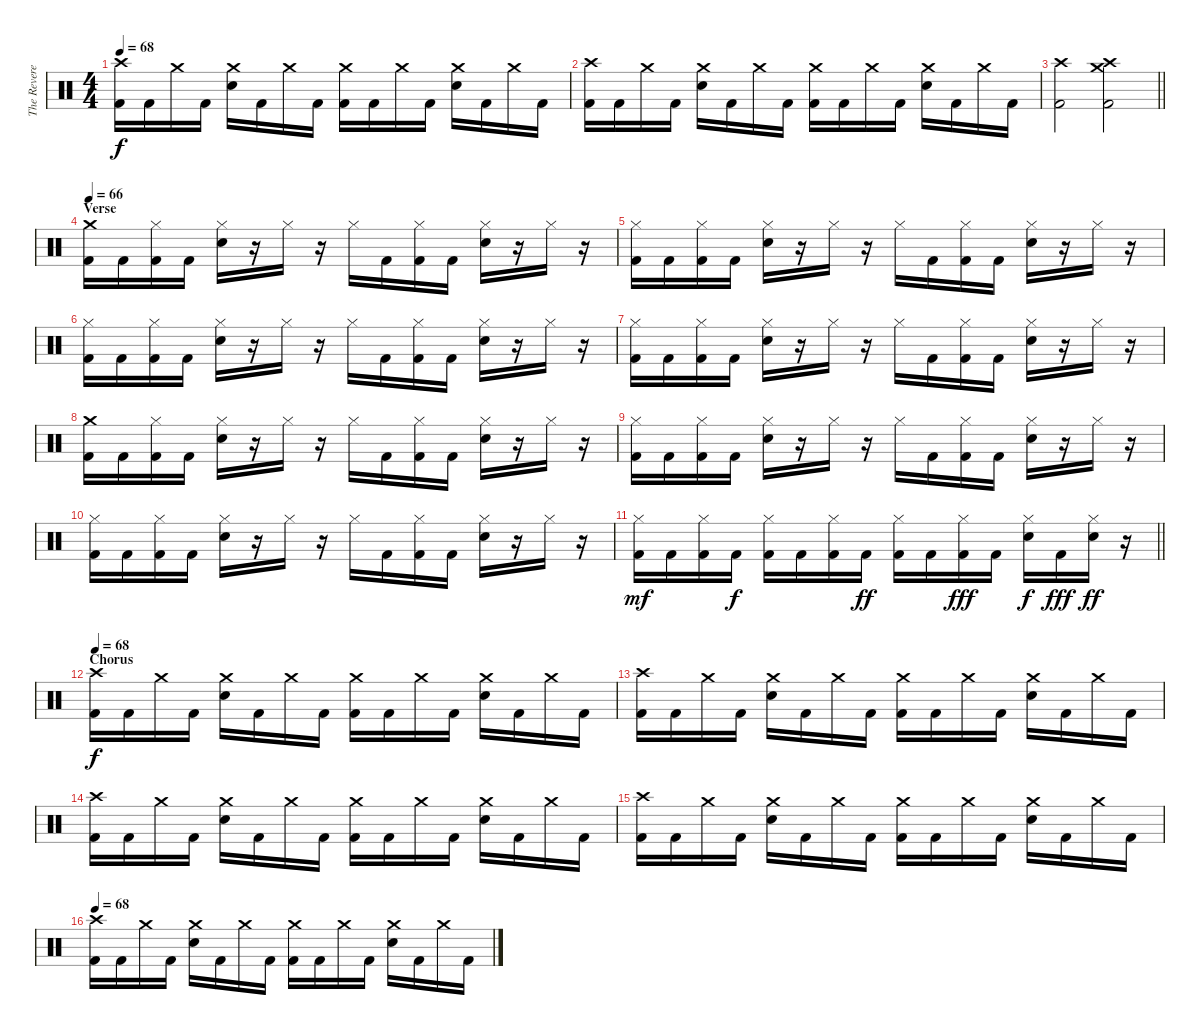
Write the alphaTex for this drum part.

\track ("The Reverend" "The Revere") {instrument percussion}
\staff {score}
\articulation defaults
\ts (4 4)
\tempo 68
\clef neutral
\ks c
("Crash high (hit)" "Kick (hit) 2").16{dy f} "Kick (hit) 2".16 "Crash medium (hit)".16 "Kick (hit) 2".16 ("Crash medium (hit)" "Electric Snare (hit)").16 "Kick (hit) 2".16 "Crash medium (hit)".16 "Kick (hit) 2".16 ("Crash medium (hit)" "Kick (hit) 2").16 "Kick (hit) 2".16 "Crash medium (hit)".16 "Kick (hit) 2".16 ("Crash medium (hit)" "Electric Snare (hit)").16 "Kick (hit) 2".16 "Crash medium (hit)".16 "Kick (hit) 2".16 |
("Crash high (hit)" "Kick (hit) 2").16 "Kick (hit) 2".16 "Crash medium (hit)".16 "Kick (hit) 2".16 ("Crash medium (hit)" "Electric Snare (hit)").16 "Kick (hit) 2".16 "Crash medium (hit)".16 "Kick (hit) 2".16 ("Crash medium (hit)" "Kick (hit) 2").16 "Kick (hit) 2".16 "Crash medium (hit)".16 "Kick (hit) 2".16 ("Crash medium (hit)" "Electric Snare (hit)").16 "Kick (hit) 2".16 "Crash medium (hit)".16 "Kick (hit) 2".16 |
\barLineRight lightlight
("Crash high (hit)" "Kick (hit) 2").2 ("Crash high (hit)" "Crash medium (hit)" "Kick (hit) 2").2 |
\section ("" "Verse")
\tempo 66
("Crash medium (hit)" "Kick (hit) 2").16 "Kick (hit) 2".16 ("Hi-Hat (closed)" "Kick (hit) 2").16 "Kick (hit) 2".16 ("Hi-Hat (closed)" "Electric Snare (hit)").16 r.16 "Hi-Hat (closed)".16 r.16 "Hi-Hat (closed)".16 "Kick (hit) 2".16 ("Hi-Hat (closed)" "Kick (hit) 2").16 "Kick (hit) 2".16 ("Hi-Hat (closed)" "Electric Snare (hit)").16 r.16 "Hi-Hat (closed)".16 r.16 |
("Hi-Hat (closed)" "Kick (hit) 2").16 "Kick (hit) 2".16 ("Hi-Hat (closed)" "Kick (hit) 2").16 "Kick (hit) 2".16 ("Hi-Hat (closed)" "Electric Snare (hit)").16 r.16 "Hi-Hat (closed)".16 r.16 "Hi-Hat (closed)".16 "Kick (hit) 2".16 ("Hi-Hat (closed)" "Kick (hit) 2").16 "Kick (hit) 2".16 ("Hi-Hat (closed)" "Electric Snare (hit)").16 r.16 "Hi-Hat (closed)".16 r.16 |
("Hi-Hat (closed)" "Kick (hit) 2").16 "Kick (hit) 2".16 ("Hi-Hat (closed)" "Kick (hit) 2").16 "Kick (hit) 2".16 ("Hi-Hat (closed)" "Electric Snare (hit)").16 r.16 "Hi-Hat (closed)".16 r.16 "Hi-Hat (closed)".16 "Kick (hit) 2".16 ("Hi-Hat (closed)" "Kick (hit) 2").16 "Kick (hit) 2".16 ("Hi-Hat (closed)" "Electric Snare (hit)").16 r.16 "Hi-Hat (closed)".16 r.16 |
("Hi-Hat (closed)" "Kick (hit) 2").16 "Kick (hit) 2".16 ("Hi-Hat (closed)" "Kick (hit) 2").16 "Kick (hit) 2".16 ("Hi-Hat (closed)" "Electric Snare (hit)").16 r.16 "Hi-Hat (closed)".16 r.16 "Hi-Hat (closed)".16 "Kick (hit) 2".16 ("Hi-Hat (closed)" "Kick (hit) 2").16 "Kick (hit) 2".16 ("Hi-Hat (closed)" "Electric Snare (hit)").16 r.16 "Hi-Hat (closed)".16 r.16 |
("Crash medium (hit)" "Kick (hit) 2").16 "Kick (hit) 2".16 ("Hi-Hat (closed)" "Kick (hit) 2").16 "Kick (hit) 2".16 ("Hi-Hat (closed)" "Electric Snare (hit)").16 r.16 "Hi-Hat (closed)".16 r.16 "Hi-Hat (closed)".16 "Kick (hit) 2".16 ("Hi-Hat (closed)" "Kick (hit) 2").16 "Kick (hit) 2".16 ("Hi-Hat (closed)" "Electric Snare (hit)").16 r.16 "Hi-Hat (closed)".16 r.16 |
("Hi-Hat (closed)" "Kick (hit) 2").16 "Kick (hit) 2".16 ("Hi-Hat (closed)" "Kick (hit) 2").16 "Kick (hit) 2".16 ("Hi-Hat (closed)" "Electric Snare (hit)").16 r.16 "Hi-Hat (closed)".16 r.16 "Hi-Hat (closed)".16 "Kick (hit) 2".16 ("Hi-Hat (closed)" "Kick (hit) 2").16 "Kick (hit) 2".16 ("Hi-Hat (closed)" "Electric Snare (hit)").16 r.16 "Hi-Hat (closed)".16 r.16 |
("Hi-Hat (closed)" "Kick (hit) 2").16 "Kick (hit) 2".16 ("Hi-Hat (closed)" "Kick (hit) 2").16 "Kick (hit) 2".16 ("Hi-Hat (closed)" "Electric Snare (hit)").16 r.16 "Hi-Hat (closed)".16 r.16 "Hi-Hat (closed)".16 "Kick (hit) 2".16 ("Hi-Hat (closed)" "Kick (hit) 2").16 "Kick (hit) 2".16 ("Hi-Hat (closed)" "Electric Snare (hit)").16 r.16 "Hi-Hat (closed)".16 r.16 |
\barLineRight lightlight
("Hi-Hat (closed)" "Kick (hit) 2").16{dy mf} "Kick (hit) 2".16 ("Hi-Hat (closed)" "Kick (hit) 2").16 "Kick (hit) 2".16{dy f} ("Hi-Hat (closed)" "Kick (hit) 2").16 "Kick (hit) 2".16 ("Hi-Hat (closed)" "Kick (hit) 2").16 "Kick (hit) 2".16{dy ff} ("Hi-Hat (closed)" "Kick (hit) 2").16 "Kick (hit) 2".16 ("Hi-Hat (closed)" "Kick (hit) 2").16{dy fff} "Kick (hit) 2".16 ("Hi-Hat (closed)" "Electric Snare (hit)").16{dy f} "Kick (hit) 2".16{dy fff} ("Hi-Hat (closed)" "Electric Snare (hit)").16{dy ff} r.16 |
\section ("" "Chorus")
\tempo 68
("Crash high (hit)" "Kick (hit) 2").16{dy f} "Kick (hit) 2".16 "Crash medium (hit)".16 "Kick (hit) 2".16 ("Crash medium (hit)" "Electric Snare (hit)").16 "Kick (hit) 2".16 "Crash medium (hit)".16 "Kick (hit) 2".16 ("Crash medium (hit)" "Kick (hit) 2").16 "Kick (hit) 2".16 "Crash medium (hit)".16 "Kick (hit) 2".16 ("Crash medium (hit)" "Electric Snare (hit)").16 "Kick (hit) 2".16 "Crash medium (hit)".16 "Kick (hit) 2".16 |
("Crash high (hit)" "Kick (hit) 2").16 "Kick (hit) 2".16 "Crash medium (hit)".16 "Kick (hit) 2".16 ("Crash medium (hit)" "Electric Snare (hit)").16 "Kick (hit) 2".16 "Crash medium (hit)".16 "Kick (hit) 2".16 ("Crash medium (hit)" "Kick (hit) 2").16 "Kick (hit) 2".16 "Crash medium (hit)".16 "Kick (hit) 2".16 ("Crash medium (hit)" "Electric Snare (hit)").16 "Kick (hit) 2".16 "Crash medium (hit)".16 "Kick (hit) 2".16 |
("Crash high (hit)" "Kick (hit) 2").16 "Kick (hit) 2".16 "Crash medium (hit)".16 "Kick (hit) 2".16 ("Crash medium (hit)" "Electric Snare (hit)").16 "Kick (hit) 2".16 "Crash medium (hit)".16 "Kick (hit) 2".16 ("Crash medium (hit)" "Kick (hit) 2").16 "Kick (hit) 2".16 "Crash medium (hit)".16 "Kick (hit) 2".16 ("Crash medium (hit)" "Electric Snare (hit)").16 "Kick (hit) 2".16 "Crash medium (hit)".16 "Kick (hit) 2".16 |
("Crash high (hit)" "Kick (hit) 2").16 "Kick (hit) 2".16 "Crash medium (hit)".16 "Kick (hit) 2".16 ("Crash medium (hit)" "Electric Snare (hit)").16 "Kick (hit) 2".16 "Crash medium (hit)".16 "Kick (hit) 2".16 ("Crash medium (hit)" "Kick (hit) 2").16 "Kick (hit) 2".16 "Crash medium (hit)".16 "Kick (hit) 2".16 ("Crash medium (hit)" "Electric Snare (hit)").16 "Kick (hit) 2".16 "Crash medium (hit)".16 "Kick (hit) 2".16 |
\tempo 68
("Crash high (hit)" "Kick (hit) 2").16 "Kick (hit) 2".16 "Crash medium (hit)".16 "Kick (hit) 2".16 ("Crash medium (hit)" "Electric Snare (hit)").16 "Kick (hit) 2".16 "Crash medium (hit)".16 "Kick (hit) 2".16 ("Crash medium (hit)" "Kick (hit) 2").16 "Kick (hit) 2".16 "Crash medium (hit)".16 "Kick (hit) 2".16 ("Crash medium (hit)" "Electric Snare (hit)").16 "Kick (hit) 2".16 "Crash medium (hit)".16 "Kick (hit) 2".16
